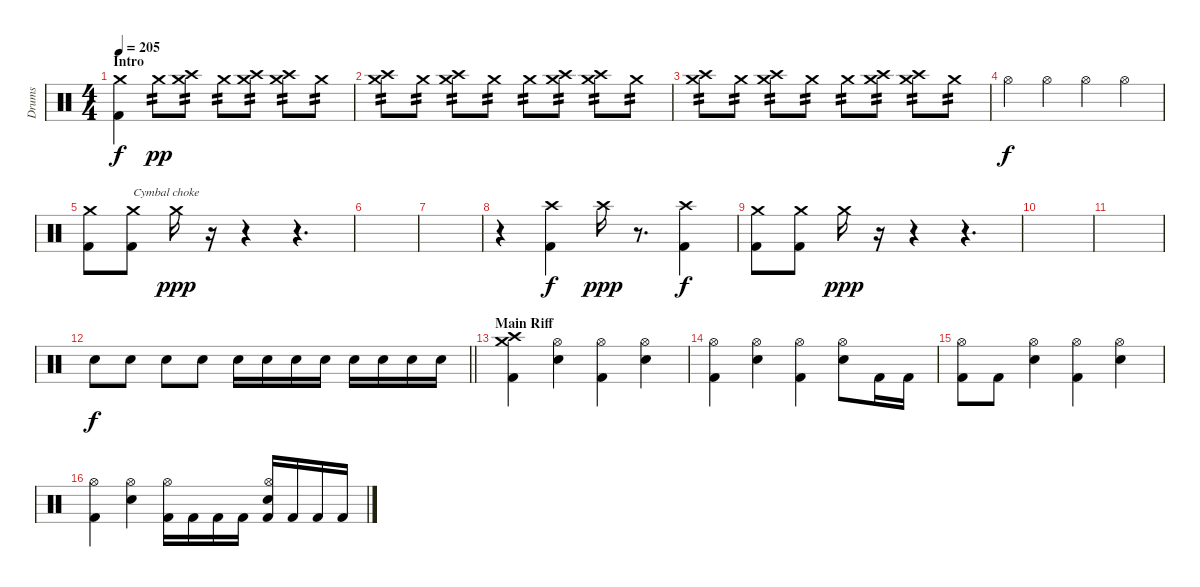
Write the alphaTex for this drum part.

\track ("Drums" "Drums") {instrument percussion}
\staff {score}
\articulation defaults
\ts (4 4)
\section ("" "Intro")
\tempo 205
\clef neutral
\ks c
("Crash medium (hit)" "Kick (hit) 2").4{dy f} "Crash medium (hit)".8{tp 2 dy pp} ("Crash medium (hit)" "Crash high (hit)").8{tp 2} "Crash medium (hit)".8{tp 2} ("Crash medium (hit)" "Crash high (hit)").8{tp 2} ("Crash medium (hit)" "Crash high (hit)").8{tp 2} "Crash medium (hit)".8{tp 2} |
("Crash medium (hit)" "Crash high (hit)").8{tp 2} "Crash medium (hit)".8{tp 2} ("Crash medium (hit)" "Crash high (hit)").8{tp 2} "Crash medium (hit)".8{tp 2} "Crash medium (hit)".8{tp 2} ("Crash medium (hit)" "Crash high (hit)").8{tp 2} ("Crash medium (hit)" "Crash high (hit)").8{tp 2} "Crash medium (hit)".8{tp 2} |
("Crash medium (hit)" "Crash high (hit)").8{tp 2} "Crash medium (hit)".8{tp 2} ("Crash medium (hit)" "Crash high (hit)").8{tp 2} "Crash medium (hit)".8{tp 2} "Crash medium (hit)".8{tp 2} ("Crash medium (hit)" "Crash high (hit)").8{tp 2} ("Crash medium (hit)" "Crash high (hit)").8{tp 2} "Crash medium (hit)".8{tp 2} |
"Hi-Hat (open)".4{dy f} "Hi-Hat (open)".4 "Hi-Hat (open)".4 "Hi-Hat (open)".4 |
("Crash medium (hit)" "Kick (hit) 2").8 ("Crash medium (hit)" "Kick (hit) 2").8{txt "Cymbal choke"} "Crash medium (hit)".16{dy ppp} r.16 r.4 r.4{d} |
|
|
r.4 ("Crash high (hit)" "Kick (hit) 2").4{dy f} "Crash high (hit)".16{dy ppp} r.8{d} ("Crash high (hit)" "Kick (hit) 2").4{dy f} |
("Crash medium (hit)" "Kick (hit) 2").8 ("Crash medium (hit)" "Kick (hit) 2").8 "Crash medium (hit)".16{dy ppp} r.16 r.4 r.4{d} |
|
|
\barLineRight lightlight "Electric Snare (hit)".8{dy f} "Electric Snare (hit)".8 "Electric Snare (hit)".8 "Electric Snare (hit)".8 "Electric Snare (hit)".16 "Electric Snare (hit)".16 "Electric Snare (hit)".16 "Electric Snare (hit)".16 "Electric Snare (hit)".16 "Electric Snare (hit)".16 "Electric Snare (hit)".16 "Electric Snare (hit)".16
|
\section ("" "Main Riff")
("Crash high (hit)" "Crash medium (hit)" "Kick (hit) 2").4 ("Hi-Hat (open)" "Electric Snare (hit)").4 ("Hi-Hat (open)" "Kick (hit) 2").4 ("Hi-Hat (open)" "Electric Snare (hit)").4 |
("Hi-Hat (open)" "Kick (hit) 2").4 ("Hi-Hat (open)" "Electric Snare (hit)").4 ("Hi-Hat (open)" "Kick (hit) 2").4 ("Hi-Hat (open)" "Electric Snare (hit)").8 "Kick (hit) 2".16 "Kick (hit) 2".16 |
("Hi-Hat (open)" "Kick (hit) 2").8 "Kick (hit) 2".8 ("Hi-Hat (open)" "Electric Snare (hit)").4 ("Hi-Hat (open)" "Kick (hit) 2").4 ("Hi-Hat (open)" "Electric Snare (hit)").4 |
("Hi-Hat (open)" "Kick (hit) 2").4 ("Hi-Hat (open)" "Electric Snare (hit)").4 ("Hi-Hat (open)" "Kick (hit) 2").16 "Kick (hit) 2".16 "Kick (hit) 2".16 "Kick (hit) 2".16 ("Hi-Hat (open)" "Electric Snare (hit)" "Kick (hit) 2").16 "Kick (hit) 2".16 "Kick (hit) 2".16 "Kick (hit) 2".16
